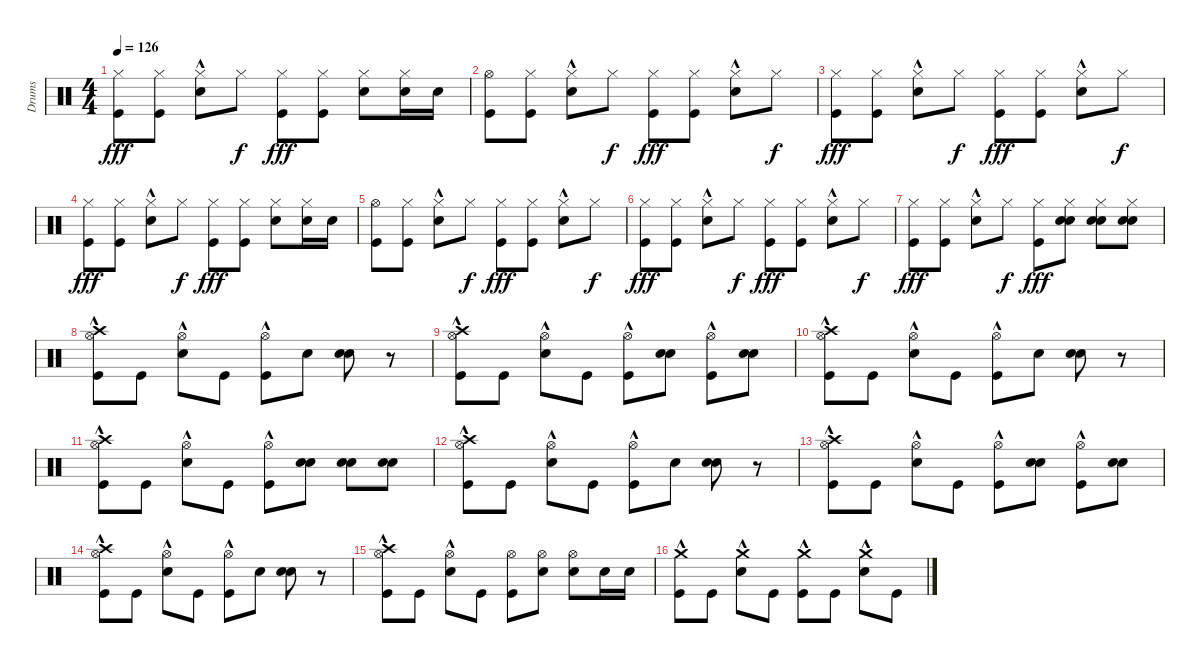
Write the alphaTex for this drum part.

\track ("Drums" "Drums") {instrument percussion}
\staff {score}
\articulation defaults
\ts (4 4)
\tempo 126
\clef neutral
\ks c
("Hi-Hat (closed)" "Kick (hit)").8{dy fff} ("Hi-Hat (closed)" "Kick (hit)").8 ("Hi-Hat (closed)" "Snare (hit) 2"{hac}).8 "Hi-Hat (closed)".8{dy f} ("Hi-Hat (closed)" "Kick (hit)").8{dy fff} ("Hi-Hat (closed)" "Kick (hit)").8 ("Snare (hit) 2" "Hi-Hat (closed)").8 ("Hi-Hat (closed)" "Snare (hit) 2").16 "Snare (hit) 2".16 |
("Hi-Hat (open)" "Kick (hit)").8 ("Hi-Hat (closed)" "Kick (hit)").8 ("Hi-Hat (closed)" "Snare (hit) 2"{hac}).8 "Hi-Hat (closed)".8{dy f} ("Hi-Hat (closed)" "Kick (hit)").8{dy fff} ("Hi-Hat (closed)" "Kick (hit)").8 ("Hi-Hat (closed)" "Snare (hit) 2"{hac}).8 "Hi-Hat (closed)".8{dy f} |
("Hi-Hat (closed)" "Kick (hit)").8{dy fff} ("Hi-Hat (closed)" "Kick (hit)").8 ("Hi-Hat (closed)" "Snare (hit) 2"{hac}).8 "Hi-Hat (closed)".8{dy f} ("Hi-Hat (closed)" "Kick (hit)").8{dy fff} ("Hi-Hat (closed)" "Kick (hit)").8 ("Hi-Hat (closed)" "Snare (hit) 2"{hac}).8 "Hi-Hat (closed)".8{dy f} |
("Hi-Hat (closed)" "Kick (hit)").8{dy fff} ("Hi-Hat (closed)" "Kick (hit)").8 ("Hi-Hat (closed)" "Snare (hit) 2"{hac}).8 "Hi-Hat (closed)".8{dy f} ("Hi-Hat (closed)" "Kick (hit)").8{dy fff} ("Hi-Hat (closed)" "Kick (hit)").8 ("Snare (hit) 2" "Hi-Hat (closed)").8 ("Hi-Hat (closed)" "Snare (hit) 2").16 "Snare (hit) 2".16 |
("Hi-Hat (open)" "Kick (hit)").8 ("Hi-Hat (closed)" "Kick (hit)").8 ("Hi-Hat (closed)" "Snare (hit) 2"{hac}).8 "Hi-Hat (closed)".8{dy f} ("Hi-Hat (closed)" "Kick (hit)").8{dy fff} ("Hi-Hat (closed)" "Kick (hit)").8 ("Hi-Hat (closed)" "Snare (hit) 2"{hac}).8 "Hi-Hat (closed)".8{dy f} |
("Hi-Hat (closed)" "Kick (hit)").8{dy fff} ("Hi-Hat (closed)" "Kick (hit)").8 ("Hi-Hat (closed)" "Snare (hit) 2"{hac}).8 "Hi-Hat (closed)".8{dy f} ("Hi-Hat (closed)" "Kick (hit)").8{dy fff} ("Hi-Hat (closed)" "Kick (hit)").8 ("Snare (hit) 2"{hac} "Hi-Hat (closed)").8 "Hi-Hat (closed)".8{dy f} |
("Hi-Hat (closed)" "Kick (hit)").8{dy fff} ("Hi-Hat (closed)" "Kick (hit)").8 ("Hi-Hat (closed)" "Snare (hit) 2"{hac}).8 "Hi-Hat (closed)".8{dy f} ("Hi-Hat (closed)" "Kick (hit)").8{dy fff} ("Hi-Hat (closed)" "Snare (hit) 2" "Electric Snare (hit)").8 ("Snare (hit) 2" "Electric Snare (hit)" "Hi-Hat (closed)").8 ("Hi-Hat (closed)" "Snare (hit) 2" "Electric Snare (hit)").8 |
("Kick (hit)" "Crash high (hit)"{hac} "Hi-Hat (open)"{hac}).8 "Kick (hit)".8 ("Hi-Hat (open)"{hac} "Electric Snare (hit)").8 "Kick (hit)".8 ("Kick (hit)" "Hi-Hat (open)"{hac}).8 "Electric Snare (hit)".8 ("Electric Snare (hit)" "Snare (hit) 2").8 r.8 |
("Crash high (hit)"{hac} "Kick (hit)" "Hi-Hat (open)"{hac}).8 "Kick (hit)".8 ("Electric Snare (hit)" "Hi-Hat (open)"{hac}).8 "Kick (hit)".8 ("Hi-Hat (open)"{hac} "Kick (hit)").8 ("Electric Snare (hit)" "Snare (hit) 2").8 ("Kick (hit)" "Hi-Hat (open)"{hac}).8 ("Snare (hit) 2" "Electric Snare (hit)").8 |
("Hi-Hat (open)"{hac} "Kick (hit)" "Crash high (hit)"{hac}).8 "Kick (hit)".8 ("Hi-Hat (open)"{hac} "Electric Snare (hit)").8 "Kick (hit)".8 ("Hi-Hat (open)"{hac} "Kick (hit)").8 "Electric Snare (hit)".8 ("Snare (hit) 2" "Electric Snare (hit)").8 r.8 |
("Crash high (hit)"{hac} "Kick (hit)" "Hi-Hat (open)"{hac}).8 "Kick (hit)".8 ("Hi-Hat (open)"{hac} "Electric Snare (hit)").8 "Kick (hit)".8 ("Kick (hit)" "Hi-Hat (open)"{hac}).8 ("Electric Snare (hit)" "Snare (hit) 2").8 ("Snare (hit) 2" "Electric Snare (hit)").8 ("Electric Snare (hit)" "Snare (hit) 2").8 |
("Kick (hit)" "Crash high (hit)"{hac} "Hi-Hat (open)"{hac}).8 "Kick (hit)".8 ("Electric Snare (hit)" "Hi-Hat (open)"{hac}).8 "Kick (hit)".8 ("Hi-Hat (open)"{hac} "Kick (hit)").8 "Electric Snare (hit)".8 ("Electric Snare (hit)" "Snare (hit) 2").8 r.8 |
("Crash high (hit)"{hac} "Kick (hit)" "Hi-Hat (open)"{hac}).8 "Kick (hit)".8 ("Hi-Hat (open)"{hac} "Electric Snare (hit)").8 "Kick (hit)".8 ("Kick (hit)" "Hi-Hat (open)"{hac}).8 ("Snare (hit) 2" "Electric Snare (hit)").8 ("Kick (hit)" "Hi-Hat (open)"{hac}).8 ("Electric Snare (hit)" "Snare (hit) 2").8 |
("Kick (hit)" "Crash high (hit)"{hac} "Hi-Hat (open)"{hac}).8 "Kick (hit)".8 ("Electric Snare (hit)" "Hi-Hat (open)"{hac}).8 "Kick (hit)".8 ("Kick (hit)" "Hi-Hat (open)"{hac}).8 "Electric Snare (hit)".8 ("Snare (hit) 2" "Electric Snare (hit)").8 r.8 |
("Crash high (hit)"{hac} "Hi-Hat (open)"{hac} "Kick (hit)").8 "Kick (hit)".8 ("Hi-Hat (open)"{hac} "Electric Snare (hit)").8 "Kick (hit)".8 ("Hi-Hat (open)" "Kick (hit)").8 ("Hi-Hat (open)" "Electric Snare (hit)").8 ("Hi-Hat (open)" "Electric Snare (hit)").8 "Electric Snare (hit)".16 "Electric Snare (hit)".16 |
("Kick (hit)" "Crash medium (hit)"{hac}).8 "Kick (hit)".8 ("Electric Snare (hit)" "Crash medium (hit)"{hac}).8 "Kick (hit)".8 ("Crash medium (hit)"{hac} "Kick (hit)").8 "Kick (hit)".8 ("Electric Snare (hit)" "Crash medium (hit)"{hac}).8 "Kick (hit)".8
